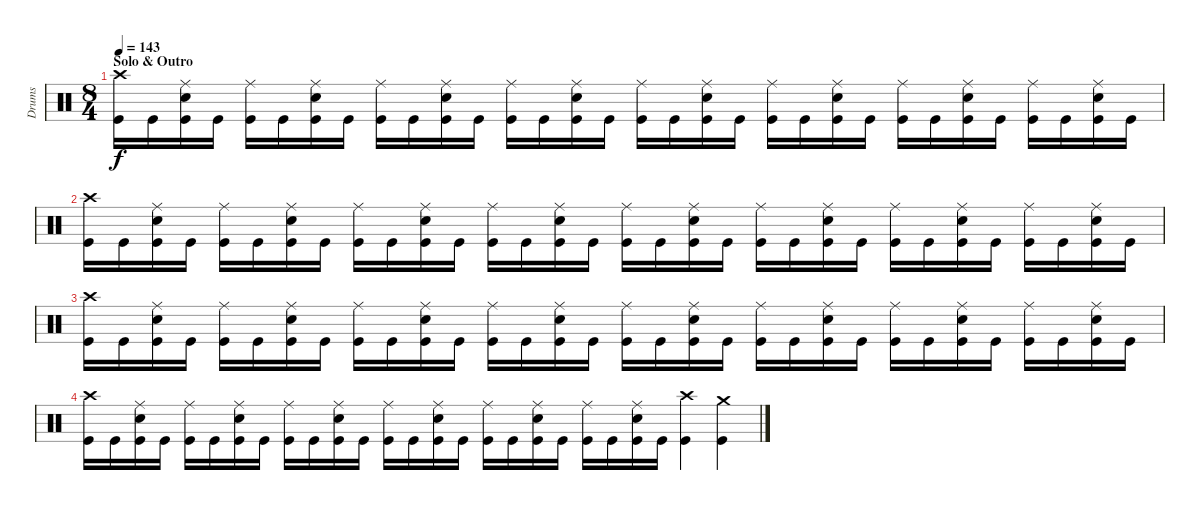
\track ("Drums" "Drums") {instrument percussion}
\staff {score}
\articulation defaults
\ts (8 4)
\section ("" "Solo & Outro")
\tempo 143
\clef neutral
\ks c
("Crash high (hit)" "Kick (hit)").16{dy f} "Kick (hit)".16 ("Ride (middle)" "Snare (hit) 2" "Kick (hit)").16 "Kick (hit)".16 ("Ride (middle)" "Kick (hit)").16 "Kick (hit)".16 ("Ride (middle)" "Snare (hit) 2" "Kick (hit)").16 "Kick (hit)".16 ("Ride (middle)" "Kick (hit)").16 "Kick (hit)".16 ("Ride (middle)" "Snare (hit) 2" "Kick (hit)").16 "Kick (hit)".16 ("Ride (middle)" "Kick (hit)").16 "Kick (hit)".16 ("Ride (middle)" "Snare (hit) 2" "Kick (hit)").16 "Kick (hit)".16 ("Ride (middle)" "Kick (hit)").16 "Kick (hit)".16 ("Ride (middle)" "Snare (hit) 2" "Kick (hit)").16 "Kick (hit)".16 ("Ride (middle)" "Kick (hit)").16 "Kick (hit)".16 ("Ride (middle)" "Snare (hit) 2" "Kick (hit)").16 "Kick (hit)".16 ("Ride (middle)" "Kick (hit)").16 "Kick (hit)".16 ("Ride (middle)" "Snare (hit) 2" "Kick (hit)").16 "Kick (hit)".16 ("Ride (middle)" "Kick (hit)").16 "Kick (hit)".16 ("Ride (middle)" "Snare (hit) 2" "Kick (hit)").16 "Kick (hit)".16 |
("Crash high (hit)" "Kick (hit)").16 "Kick (hit)".16 ("Ride (middle)" "Snare (hit) 2" "Kick (hit)").16 "Kick (hit)".16 ("Ride (middle)" "Kick (hit)").16 "Kick (hit)".16 ("Ride (middle)" "Snare (hit) 2" "Kick (hit)").16 "Kick (hit)".16 ("Ride (middle)" "Kick (hit)").16 "Kick (hit)".16 ("Ride (middle)" "Snare (hit) 2" "Kick (hit)").16 "Kick (hit)".16 ("Ride (middle)" "Kick (hit)").16 "Kick (hit)".16 ("Ride (middle)" "Snare (hit) 2" "Kick (hit)").16 "Kick (hit)".16 ("Ride (middle)" "Kick (hit)").16 "Kick (hit)".16 ("Ride (middle)" "Snare (hit) 2" "Kick (hit)").16 "Kick (hit)".16 ("Ride (middle)" "Kick (hit)").16 "Kick (hit)".16 ("Ride (middle)" "Snare (hit) 2" "Kick (hit)").16 "Kick (hit)".16 ("Ride (middle)" "Kick (hit)").16 "Kick (hit)".16 ("Ride (middle)" "Snare (hit) 2" "Kick (hit)").16 "Kick (hit)".16 ("Ride (middle)" "Kick (hit)").16 "Kick (hit)".16 ("Ride (middle)" "Snare (hit) 2" "Kick (hit)").16 "Kick (hit)".16 |
("Crash high (hit)" "Kick (hit)").16 "Kick (hit)".16 ("Ride (middle)" "Snare (hit) 2" "Kick (hit)").16 "Kick (hit)".16 ("Ride (middle)" "Kick (hit)").16 "Kick (hit)".16 ("Ride (middle)" "Snare (hit) 2" "Kick (hit)").16 "Kick (hit)".16 ("Ride (middle)" "Kick (hit)").16 "Kick (hit)".16 ("Ride (middle)" "Snare (hit) 2" "Kick (hit)").16 "Kick (hit)".16 ("Ride (middle)" "Kick (hit)").16 "Kick (hit)".16 ("Ride (middle)" "Snare (hit) 2" "Kick (hit)").16 "Kick (hit)".16 ("Ride (middle)" "Kick (hit)").16 "Kick (hit)".16 ("Ride (middle)" "Snare (hit) 2" "Kick (hit)").16 "Kick (hit)".16 ("Ride (middle)" "Kick (hit)").16 "Kick (hit)".16 ("Ride (middle)" "Snare (hit) 2" "Kick (hit)").16 "Kick (hit)".16 ("Ride (middle)" "Kick (hit)").16 "Kick (hit)".16 ("Ride (middle)" "Snare (hit) 2" "Kick (hit)").16 "Kick (hit)".16 ("Ride (middle)" "Kick (hit)").16 "Kick (hit)".16 ("Ride (middle)" "Snare (hit) 2" "Kick (hit)").16 "Kick (hit)".16 |
("Crash high (hit)" "Kick (hit)").16 "Kick (hit)".16 ("Ride (middle)" "Snare (hit) 2" "Kick (hit)").16 "Kick (hit)".16 ("Ride (middle)" "Kick (hit)").16 "Kick (hit)".16 ("Ride (middle)" "Snare (hit) 2" "Kick (hit)").16 "Kick (hit)".16 ("Ride (middle)" "Kick (hit)").16 "Kick (hit)".16 ("Ride (middle)" "Snare (hit) 2" "Kick (hit)").16 "Kick (hit)".16 ("Ride (middle)" "Kick (hit)").16 "Kick (hit)".16 ("Ride (middle)" "Snare (hit) 2" "Kick (hit)").16 "Kick (hit)".16 ("Ride (middle)" "Kick (hit)").16 "Kick (hit)".16 ("Ride (middle)" "Snare (hit) 2" "Kick (hit)").16 "Kick (hit)".16 ("Ride (middle)" "Kick (hit)").16 "Kick (hit)".16 ("Ride (middle)" "Snare (hit) 2" "Kick (hit)").16 "Kick (hit)".16 ("Crash high (hit)" "Kick (hit)").4 ("Crash medium (hit)" "Kick (hit)").4
